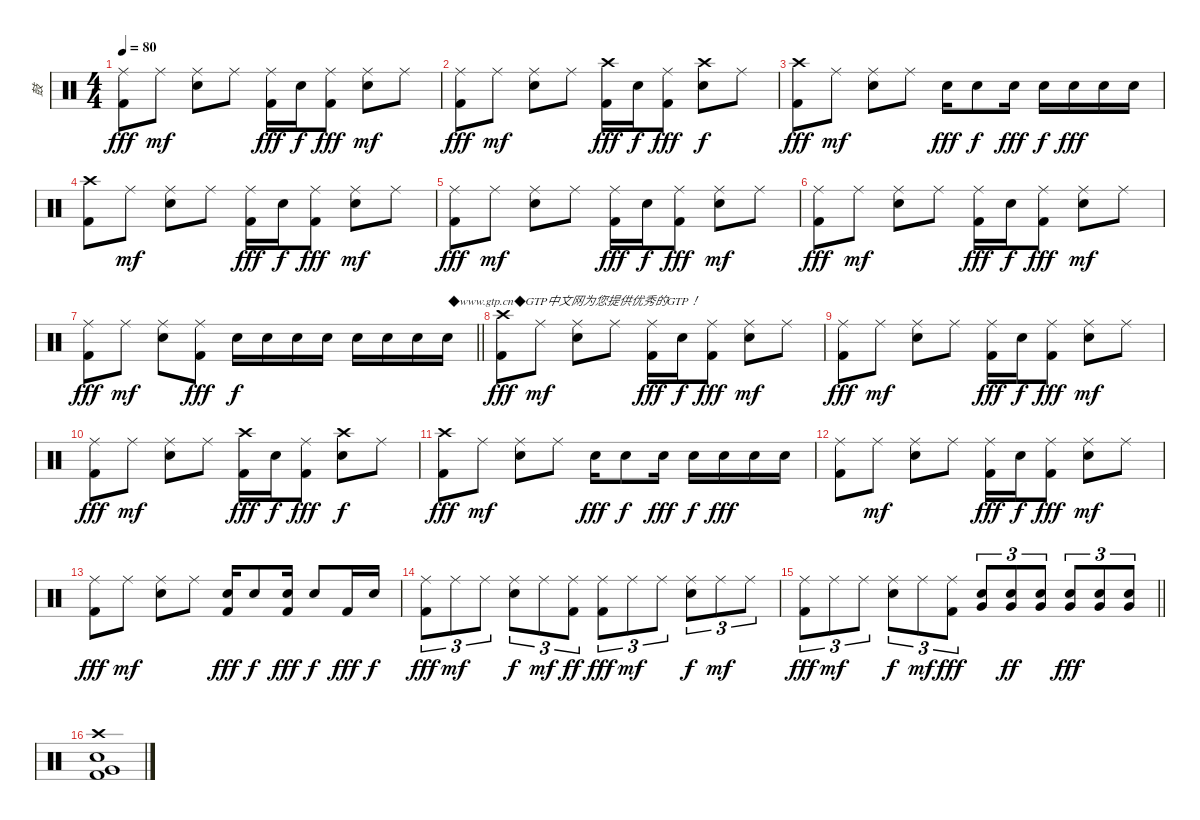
\track ("鼓" "鼓") {instrument percussion}
\staff {score}
\articulation defaults
\ts (4 4)
\tempo 80
\clef neutral
\ks c
("Ride (middle)" "Kick (hit) 2").8{dy fff} "Ride (middle)".8{dy mf} ("Ride (middle)" "Electric Snare (hit)").8 "Ride (middle)".8 ("Ride (middle)" "Kick (hit) 2").16{dy fff} "Electric Snare (hit)".16{dy f} ("Ride (middle)" "Kick (hit) 2").8{dy fff} ("Ride (middle)" "Electric Snare (hit)").8{dy mf} "Ride (middle)".8 |
("Ride (middle)" "Kick (hit) 2").8{dy fff} "Ride (middle)".8{dy mf} ("Ride (middle)" "Electric Snare (hit)").8 "Ride (middle)".8 ("Crash high (hit)" "Kick (hit) 2").16{dy fff} "Electric Snare (hit)".16{dy f} ("Ride (middle)" "Kick (hit) 2").8{dy fff} ("Crash high (hit)" "Electric Snare (hit)").8{dy f} "Ride (middle)".8 |
("Crash high (hit)" "Kick (hit) 2").8{dy fff} "Ride (middle)".8{dy mf} ("Ride (middle)" "Electric Snare (hit)").8 "Ride (middle)".8 "Electric Snare (hit)".16{dy fff} "Electric Snare (hit)".8{dy f} "Electric Snare (hit)".16{dy fff} "Electric Snare (hit)".16{dy f} "Electric Snare (hit)".16{dy fff} "Electric Snare (hit)".16 "Electric Snare (hit)".16 |
("Crash high (hit)" "Kick (hit) 2").8 "Ride (middle)".8{dy mf} ("Ride (middle)" "Electric Snare (hit)").8 "Ride (middle)".8 ("Ride (middle)" "Kick (hit) 2").16{dy fff} "Electric Snare (hit)".16{dy f} ("Ride (middle)" "Kick (hit) 2").8{dy fff} ("Ride (middle)" "Electric Snare (hit)").8{dy mf} "Ride (middle)".8 |
("Ride (middle)" "Kick (hit) 2").8{dy fff} "Ride (middle)".8{dy mf} ("Ride (middle)" "Electric Snare (hit)").8 "Ride (middle)".8 ("Ride (middle)" "Kick (hit) 2").16{dy fff} "Electric Snare (hit)".16{dy f} ("Ride (middle)" "Kick (hit) 2").8{dy fff} ("Ride (middle)" "Electric Snare (hit)").8{dy mf} "Ride (middle)".8 |
("Ride (middle)" "Kick (hit) 2").8{dy fff} "Ride (middle)".8{dy mf} ("Ride (middle)" "Electric Snare (hit)").8 "Ride (middle)".8 ("Ride (middle)" "Kick (hit) 2").16{dy fff} "Electric Snare (hit)".16{dy f} ("Ride (middle)" "Kick (hit) 2").8{dy fff} ("Ride (middle)" "Electric Snare (hit)").8{dy mf} "Ride (middle)".8 |
\barLineRight lightlight
("Ride (middle)" "Kick (hit) 2").8{dy fff} "Ride (middle)".8{dy mf} ("Ride (middle)" "Electric Snare (hit)").8 ("Ride (middle)" "Kick (hit) 2").8{dy fff} "Electric Snare (hit)".16{dy f} "Electric Snare (hit)".16 "Electric Snare (hit)".16 "Electric Snare (hit)".16 "Electric Snare (hit)".16 "Electric Snare (hit)".16 "Electric Snare (hit)".16 "Electric Snare (hit)".16{txt "◆www.gtp.cn◆GTP中文网为您提供优秀的GTP！"} |
("Crash high (hit)" "Kick (hit) 2").8{dy fff} "Ride (middle)".8{dy mf} ("Ride (middle)" "Electric Snare (hit)").8 "Ride (middle)".8 ("Ride (middle)" "Kick (hit) 2").16{dy fff} "Electric Snare (hit)".16{dy f} ("Ride (middle)" "Kick (hit) 2").8{dy fff} ("Ride (middle)" "Electric Snare (hit)").8{dy mf} "Ride (middle)".8 |
("Ride (middle)" "Kick (hit) 2").8{dy fff} "Ride (middle)".8{dy mf} ("Ride (middle)" "Electric Snare (hit)").8 "Ride (middle)".8 ("Ride (middle)" "Kick (hit) 2").16{dy fff} "Electric Snare (hit)".16{dy f} ("Ride (middle)" "Kick (hit) 2").8{dy fff} ("Ride (middle)" "Electric Snare (hit)").8{dy mf} "Ride (middle)".8 |
("Ride (middle)" "Kick (hit) 2").8{dy fff} "Ride (middle)".8{dy mf} ("Ride (middle)" "Electric Snare (hit)").8 "Ride (middle)".8 ("Crash high (hit)" "Kick (hit) 2").16{dy fff} "Electric Snare (hit)".16{dy f} ("Ride (middle)" "Kick (hit) 2").8{dy fff} ("Crash high (hit)" "Electric Snare (hit)").8{dy f} "Ride (middle)".8 |
("Crash high (hit)" "Kick (hit) 2").8{dy fff} "Ride (middle)".8{dy mf} ("Ride (middle)" "Electric Snare (hit)").8 "Ride (middle)".8 "Electric Snare (hit)".16{dy fff} "Electric Snare (hit)".8{dy f} "Electric Snare (hit)".16{dy fff} "Electric Snare (hit)".16{dy f} "Electric Snare (hit)".16{dy fff} "Electric Snare (hit)".16 "Electric Snare (hit)".16 |
("Ride (middle)" "Kick (hit) 2").8 "Ride (middle)".8{dy mf} ("Ride (middle)" "Electric Snare (hit)").8 "Ride (middle)".8 ("Ride (middle)" "Kick (hit) 2").16{dy fff} "Electric Snare (hit)".16{dy f} ("Ride (middle)" "Kick (hit) 2").8{dy fff} ("Ride (middle)" "Electric Snare (hit)").8{dy mf} "Ride (middle)".8 |
("Ride (middle)" "Kick (hit) 2").8{dy fff} "Ride (middle)".8{dy mf} ("Ride (middle)" "Electric Snare (hit)").8 "Ride (middle)".8 ("Electric Snare (hit)" "Kick (hit) 2").16{dy fff} "Electric Snare (hit)".8{dy f} ("Electric Snare (hit)" "Kick (hit) 2").16{dy fff} "Electric Snare (hit)".8{dy f} "Kick (hit) 2".16{dy fff} "Electric Snare (hit)".16{dy f} |
("Ride (middle)" "Kick (hit) 2").8{tu (3 2) dy fff} "Ride (middle)".8{tu (3 2) dy mf} "Ride (middle)".8{tu (3 2)} ("Ride (middle)" "Electric Snare (hit)").8{tu (3 2) dy f} "Ride (middle)".8{tu (3 2) dy mf} ("Ride (middle)" "Kick (hit) 2").8{tu (3 2) dy ff} ("Ride (middle)" "Kick (hit) 2").8{tu (3 2) dy fff} "Ride (middle)".8{tu (3 2) dy mf} "Ride (middle)".8{tu (3 2)} ("Ride (middle)" "Electric Snare (hit)").8{tu (3 2) dy f} "Ride (middle)".8{tu (3 2) dy mf} "Ride (middle)".8{tu (3 2)} |
\barLineRight lightlight
("Ride (middle)" "Kick (hit) 2").8{tu (3 2) dy fff} "Ride (middle)".8{tu (3 2) dy mf} "Ride (middle)".8{tu (3 2)} ("Ride (middle)" "Electric Snare (hit)").8{tu (3 2) dy f} "Ride (middle)".8{tu (3 2) dy mf} ("Ride (middle)" "Kick (hit) 2").8{tu (3 2) dy fff} ("Electric Snare (hit)" "Very Low Tom (hit)").8{tu (3 2)} ("Electric Snare (hit)" "Very Low Tom (hit)").8{tu (3 2) dy ff} ("Electric Snare (hit)" "Very Low Tom (hit)").8{tu (3 2)} ("Electric Snare (hit)" "Very Low Tom (hit)").8{tu (3 2) dy fff} ("Electric Snare (hit)" "Very Low Tom (hit)").8{tu (3 2)} ("Electric Snare (hit)" "Very Low Tom (hit)").8{tu (3 2)} |
("Crash high (hit)" "Electric Snare (hit)" "Very Low Tom (hit)" "Kick (hit) 2").1
